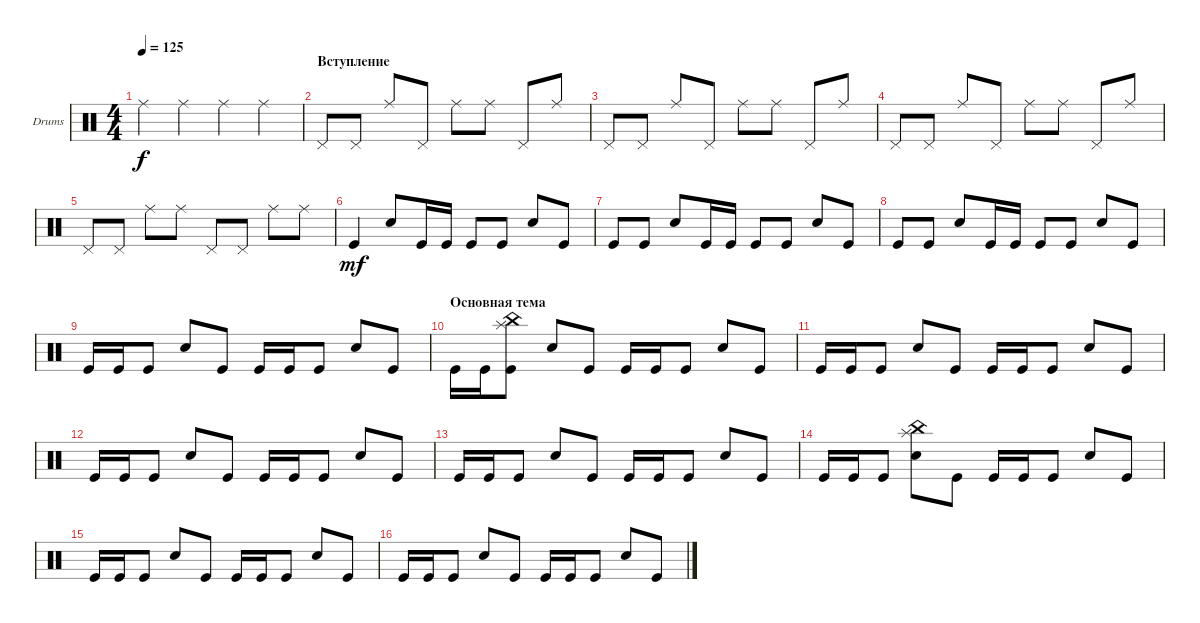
\defaultSystemsLayout 4
\bracketExtendMode groupsimilarinstruments
\firstSystemTrackNameOrientation horizontal
\otherSystemsTrackNameOrientation horizontal
\track ("Drumkit" "Drums") {instrument percussion}
\staff {score}
\articulation defaults
\ts (4 4)
\tempo 125
\clef neutral
\ks c "Ride (middle)".4{dy f} "Ride (middle)".4 "Ride (middle)".4 "Ride (middle)".4
|
\section ("" "Вступление")
"Pedal Hi-Hat (hit)".8 "Pedal Hi-Hat (hit)".8 "Ride (middle)".8 "Pedal Hi-Hat (hit)".8 "Ride (middle)".8 "Ride (middle)".8 "Pedal Hi-Hat (hit)".8 "Ride (middle)".8 |
"Pedal Hi-Hat (hit)".8 "Pedal Hi-Hat (hit)".8 "Ride (middle)".8 "Pedal Hi-Hat (hit)".8 "Ride (middle)".8 "Ride (middle)".8 "Pedal Hi-Hat (hit)".8 "Ride (middle)".8 |
"Pedal Hi-Hat (hit)".8 "Pedal Hi-Hat (hit)".8 "Ride (middle)".8 "Pedal Hi-Hat (hit)".8 "Ride (middle)".8 "Ride (middle)".8 "Pedal Hi-Hat (hit)".8 "Ride (middle)".8 |
"Pedal Hi-Hat (hit)".8 "Pedal Hi-Hat (hit)".8 "Ride (middle)".8 "Ride (middle)".8 "Pedal Hi-Hat (hit)".8 "Pedal Hi-Hat (hit)".8 "Ride (middle)".8 "Ride (middle)".8 |
"Kick (hit)".4{dy mf} "Snare (hit) 2".8 "Kick (hit)".16 "Kick (hit)".16 "Kick (hit)".8 "Kick (hit)".8 "Snare (hit) 2".8 "Kick (hit)".8 |
"Kick (hit)".8 "Kick (hit)".8 "Snare (hit) 2".8 "Kick (hit)".16 "Kick (hit)".16 "Kick (hit)".8 "Kick (hit)".8 "Snare (hit) 2".8 "Kick (hit)".8 |
"Kick (hit)".8 "Kick (hit)".8 "Snare (hit) 2".8 "Kick (hit)".16 "Kick (hit)".16 "Kick (hit)".8 "Kick (hit)".8 "Snare (hit) 2".8 "Kick (hit)".8 |
"Kick (hit)".16 "Kick (hit)".16 "Kick (hit)".8 "Snare (hit) 2".8 "Kick (hit)".8 "Kick (hit)".16 "Kick (hit)".16 "Kick (hit)".8 "Snare (hit) 2".8 "Kick (hit)".8 |
\section ("" "Основная тема")
"Kick (hit)".16 "Kick (hit)".16 ("Kick (hit)" "China (hit)" "Splash (hit)").8 "Snare (hit) 2".8 "Kick (hit)".8 "Kick (hit)".16 "Kick (hit)".16 "Kick (hit)".8 "Snare (hit) 2".8 "Kick (hit)".8 |
"Kick (hit)".16 "Kick (hit)".16 "Kick (hit)".8 "Snare (hit) 2".8 "Kick (hit)".8 "Kick (hit)".16 "Kick (hit)".16 "Kick (hit)".8 "Snare (hit) 2".8 "Kick (hit)".8 |
"Kick (hit)".16 "Kick (hit)".16 "Kick (hit)".8 "Snare (hit) 2".8 "Kick (hit)".8 "Kick (hit)".16 "Kick (hit)".16 "Kick (hit)".8 "Snare (hit) 2".8 "Kick (hit)".8 |
"Kick (hit)".16 "Kick (hit)".16 "Kick (hit)".8 "Snare (hit) 2".8 "Kick (hit)".8 "Kick (hit)".16 "Kick (hit)".16 "Kick (hit)".8 "Snare (hit) 2".8 "Kick (hit)".8 |
"Kick (hit)".16 "Kick (hit)".16 "Kick (hit)".8 ("Snare (hit) 2" "China (hit)" "Splash (hit)").8 "Kick (hit)".8 "Kick (hit)".16 "Kick (hit)".16 "Kick (hit)".8 "Snare (hit) 2".8 "Kick (hit)".8 |
"Kick (hit)".16 "Kick (hit)".16 "Kick (hit)".8 "Snare (hit) 2".8 "Kick (hit)".8 "Kick (hit)".16 "Kick (hit)".16 "Kick (hit)".8 "Snare (hit) 2".8 "Kick (hit)".8 |
"Kick (hit)".16 "Kick (hit)".16 "Kick (hit)".8 "Snare (hit) 2".8 "Kick (hit)".8 "Kick (hit)".16 "Kick (hit)".16 "Kick (hit)".8 "Snare (hit) 2".8 "Kick (hit)".8
